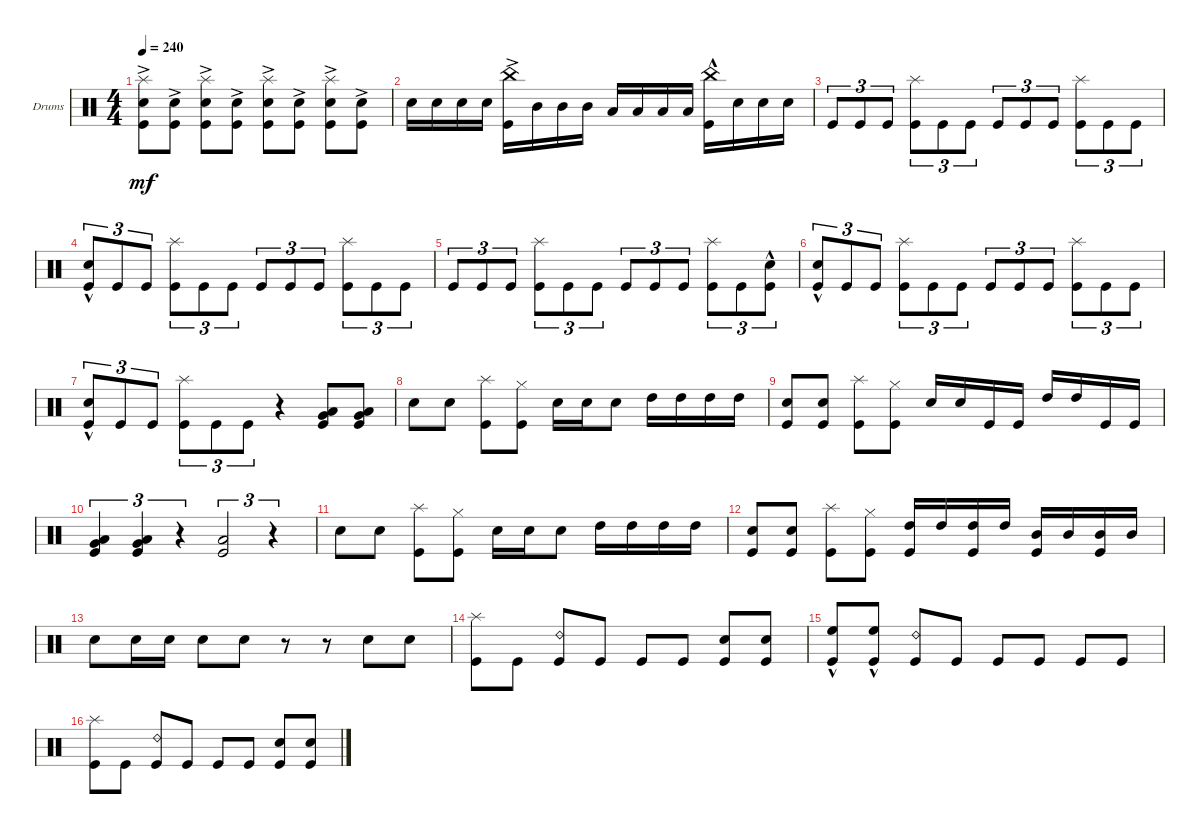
\defaultSystemsLayout 4
\bracketExtendMode groupsimilarinstruments
\firstSystemTrackNameOrientation horizontal
\otherSystemsTrackNameOrientation horizontal
\track ("Drumkit" "Drums") {mute instrument percussion}
\staff {score}
\articulation defaults
\ts (4 4)
\tempo 240
\clef neutral
\ks c
("Snare (hit) 2"{ac} "Kick (hit)" "Splash (hit)").8{dy mf} ("Snare (hit) 2"{ac} "Kick (hit)").8 ("Snare (hit) 2"{ac} "Kick (hit)" "Splash (hit)").8 ("Snare (hit) 2"{ac} "Kick (hit)").8 ("Snare (hit) 2"{ac} "Kick (hit)" "Splash (hit)").8 ("Snare (hit) 2"{ac} "Kick (hit)").8 ("Snare (hit) 2"{ac} "Kick (hit)" "Splash (hit)").8 ("Snare (hit) 2"{ac} "Kick (hit)").8 |
"Snare (hit) 2".16 "Snare (hit) 2".16 "Snare (hit) 2".16 "Snare (hit) 2".16 ("China (hit)"{ac} "Kick (hit)").16 "Mid Tom (hit)".16 "Mid Tom (hit)".16 "Mid Tom (hit)".16 "Low Tom (hit)".16 "Low Tom (hit)".16 "Low Tom (hit)".16 "Low Tom (hit)".16 ("China (hit)"{hac} "Kick (hit)").16 "Snare (hit) 2".16 "Snare (hit) 2".16 "Snare (hit) 2".16 |
"Kick (hit)".8{tu (3 2)} "Kick (hit)".8{tu (3 2)} "Kick (hit)".8{tu (3 2)} ("Kick (hit)" "Splash (hit)").8{tu (3 2)} "Kick (hit)".8{tu (3 2)} "Kick (hit)".8{tu (3 2)} "Kick (hit)".8{tu (3 2)} "Kick (hit)".8{tu (3 2)} "Kick (hit)".8{tu (3 2)} ("Kick (hit)" "Splash (hit)").8{tu (3 2)} "Kick (hit)".8{tu (3 2)} "Kick (hit)".8{tu (3 2)} |
("Kick (hit)" "Snare (hit) 2"{hac}).8{tu (3 2)} "Kick (hit)".8{tu (3 2)} "Kick (hit)".8{tu (3 2)} ("Kick (hit)" "Splash (hit)").8{tu (3 2)} "Kick (hit)".8{tu (3 2)} "Kick (hit)".8{tu (3 2)} "Kick (hit)".8{tu (3 2)} "Kick (hit)".8{tu (3 2)} "Kick (hit)".8{tu (3 2)} ("Kick (hit)" "Splash (hit)").8{tu (3 2)} "Kick (hit)".8{tu (3 2)} "Kick (hit)".8{tu (3 2)} |
"Kick (hit)".8{tu (3 2)} "Kick (hit)".8{tu (3 2)} "Kick (hit)".8{tu (3 2)} ("Kick (hit)" "Splash (hit)").8{tu (3 2)} "Kick (hit)".8{tu (3 2)} "Kick (hit)".8{tu (3 2)} "Kick (hit)".8{tu (3 2)} "Kick (hit)".8{tu (3 2)} "Kick (hit)".8{tu (3 2)} ("Kick (hit)" "Splash (hit)").8{tu (3 2)} "Kick (hit)".8{tu (3 2)} ("Kick (hit)" "Snare (hit) 2"{hac}).8{tu (3 2)} |
("Kick (hit)" "Snare (hit) 2"{hac}).8{tu (3 2)} "Kick (hit)".8{tu (3 2)} "Kick (hit)".8{tu (3 2)} ("Kick (hit)" "Splash (hit)").8{tu (3 2)} "Kick (hit)".8{tu (3 2)} "Kick (hit)".8{tu (3 2)} "Kick (hit)".8{tu (3 2)} "Kick (hit)".8{tu (3 2)} "Kick (hit)".8{tu (3 2)} ("Kick (hit)" "Splash (hit)").8{tu (3 2)} "Kick (hit)".8{tu (3 2)} "Kick (hit)".8{tu (3 2)} |
("Kick (hit)" "Snare (hit) 2"{hac}).8{tu (3 2)} "Kick (hit)".8{tu (3 2)} "Kick (hit)".8{tu (3 2)} ("Kick (hit)" "Splash (hit)").8{tu (3 2)} "Kick (hit)".8{tu (3 2)} "Kick (hit)".8{tu (3 2)} r.4 ("Kick (hit)" "Very Low Tom (hit)" "Low Tom (hit)").8 ("Kick (hit)" "Very Low Tom (hit)" "Low Tom (hit)").8 |
"Snare (hit) 2".8 "Snare (hit) 2".8 ("Splash (hit)" "Kick (hit)").8 ("Hi-Hat (closed)" "Kick (hit)").8 "Snare (hit) 2".16 "Snare (hit) 2".16 "Snare (hit) 2".8 "High Tom (hit)".16 "High Tom (hit)".16 "High Tom (hit)".16 "High Tom (hit)".16 |
("Kick (hit)" "Snare (hit) 2").8 ("Kick (hit)" "Snare (hit) 2").8 ("Splash (hit)" "Kick (hit)").8 ("Hi-Hat (closed)" "Kick (hit)").8 "Snare (hit) 2".16 "Snare (hit) 2".16 "Kick (hit)".16 "Kick (hit)".16 "High Tom (hit)".16 "High Tom (hit)".16 "Kick (hit)".16 "Kick (hit)".16 |
("Very Low Tom (hit)" "Low Tom (hit)" "Kick (hit)").4{tu (3 2)} ("Kick (hit)" "Low Tom (hit)" "Very Low Tom (hit)").4{tu (3 2)} r.4{tu (3 2)} ("Kick (hit)" "Low Tom (hit)").2{tu (3 2)} r.4{tu (3 2)} |
"Snare (hit) 2".8 "Snare (hit) 2".8 ("Splash (hit)" "Kick (hit)").8 ("Hi-Hat (closed)" "Kick (hit)").8 "Snare (hit) 2".16 "Snare (hit) 2".16 "Snare (hit) 2".8 "High Tom (hit)".16 "High Tom (hit)".16 "High Tom (hit)".16 "High Tom (hit)".16 |
("Kick (hit)" "Snare (hit) 2").8 ("Kick (hit)" "Snare (hit) 2").8 ("Splash (hit)" "Kick (hit)").8 ("Hi-Hat (closed)" "Kick (hit)").8 ("High Tom (hit)" "Kick (hit)").16 "High Tom (hit)".16 ("High Tom (hit)" "Kick (hit)").16 "High Tom (hit)".16 ("Mid Tom (hit)" "Kick (hit)").16 "Mid Tom (hit)".16 ("Mid Tom (hit)" "Kick (hit)").16 "Mid Tom (hit)".16 |
"Snare (hit) 2".8 "Snare (hit) 2".16 "Snare (hit) 2".16 "Snare (hit) 2".8 "Snare (hit) 2".8 r.8 r.8 "Snare (hit) 2".8 "Snare (hit) 2".8 |
("Kick (hit)" "Splash (hit)").8 "Kick (hit)".8 ("Kick (hit)" "Ride (bell) 2").8 "Kick (hit)".8 "Kick (hit)".8 "Kick (hit)".8 ("Kick (hit)" "Snare (hit) 2").8 ("Kick (hit)" "Snare (hit) 2").8 |
("Kick (hit)" "High Floor Tom (hit)"{hac}).8 ("Kick (hit)" "High Floor Tom (hit)"{hac}).8 ("Kick (hit)" "Ride (bell) 2").8 "Kick (hit)".8 "Kick (hit)".8 "Kick (hit)".8 "Kick (hit)".8 "Kick (hit)".8 |
("Kick (hit)" "Splash (hit)").8 "Kick (hit)".8 ("Kick (hit)" "Ride (bell) 2").8 "Kick (hit)".8 "Kick (hit)".8 "Kick (hit)".8 ("Kick (hit)" "Snare (hit) 2").8 ("Kick (hit)" "Snare (hit) 2").8
